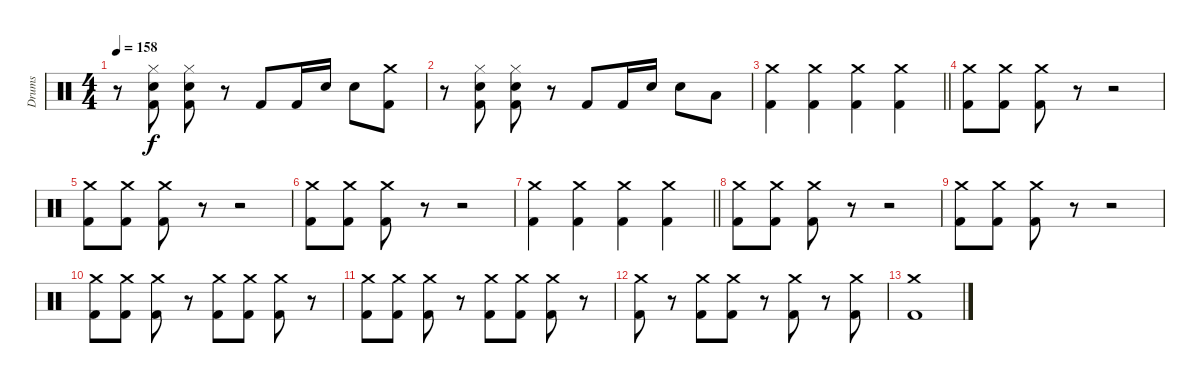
\track ("Drums" "Drums") {instrument percussion}
\staff {score}
\articulation defaults
\ts (4 4)
\tempo 158
\clef neutral
\ks c
r.8{dy f} ("Hi-Hat (closed)" "Snare (hit) 2" "Kick (hit) 2").8 ("Hi-Hat (closed)" "Snare (hit) 2" "Kick (hit) 2").8 r.8 "Kick (hit) 2".8 "Kick (hit) 2".16 "Snare (hit) 2".16 "Snare (hit) 2".8 ("Crash medium (hit)" "Kick (hit) 2").8 |
r.8 ("Hi-Hat (closed)" "Snare (hit) 2" "Kick (hit) 2").8 ("Hi-Hat (closed)" "Snare (hit) 2" "Kick (hit) 2").8 r.8 "Kick (hit) 2".8 "Kick (hit) 2".16 "Snare (hit) 2".16 "Snare (hit) 2".8 "Low Tom (hit)".8 |
\barLineRight lightlight
("Crash medium (hit)" "Kick (hit) 2").4 ("Crash medium (hit)" "Kick (hit) 2").4 ("Crash medium (hit)" "Kick (hit) 2").4 ("Crash medium (hit)" "Kick (hit) 2").4 |
("Crash medium (hit)" "Kick (hit) 2").8 ("Crash medium (hit)" "Kick (hit) 2").8 ("Crash medium (hit)" "Kick (hit) 2").8 r.8 r.2 |
("Crash medium (hit)" "Kick (hit) 2").8 ("Crash medium (hit)" "Kick (hit) 2").8 ("Crash medium (hit)" "Kick (hit) 2").8 r.8 r.2 |
("Crash medium (hit)" "Kick (hit) 2").8 ("Crash medium (hit)" "Kick (hit) 2").8 ("Crash medium (hit)" "Kick (hit) 2").8 r.8 r.2 |
\barLineRight lightlight
("Crash medium (hit)" "Kick (hit) 2").4 ("Crash medium (hit)" "Kick (hit) 2").4 ("Crash medium (hit)" "Kick (hit) 2").4 ("Crash medium (hit)" "Kick (hit) 2").4 |
("Crash medium (hit)" "Kick (hit) 2").8 ("Crash medium (hit)" "Kick (hit) 2").8 ("Crash medium (hit)" "Kick (hit) 2").8 r.8 r.2 |
("Crash medium (hit)" "Kick (hit) 2").8 ("Crash medium (hit)" "Kick (hit) 2").8 ("Crash medium (hit)" "Kick (hit) 2").8 r.8 r.2 |
("Crash medium (hit)" "Kick (hit) 2").8 ("Crash medium (hit)" "Kick (hit) 2").8 ("Crash medium (hit)" "Kick (hit) 2").8 r.8 ("Crash medium (hit)" "Kick (hit) 2").8 ("Crash medium (hit)" "Kick (hit) 2").8 ("Crash medium (hit)" "Kick (hit) 2").8 r.8 |
("Crash medium (hit)" "Kick (hit) 2").8 ("Crash medium (hit)" "Kick (hit) 2").8 ("Crash medium (hit)" "Kick (hit) 2").8 r.8 ("Crash medium (hit)" "Kick (hit) 2").8 ("Crash medium (hit)" "Kick (hit) 2").8 ("Crash medium (hit)" "Kick (hit) 2").8 r.8 |
("Crash medium (hit)" "Kick (hit) 2").8 r.8 ("Crash medium (hit)" "Kick (hit) 2").8 ("Crash medium (hit)" "Kick (hit) 2").8 r.8 ("Crash medium (hit)" "Kick (hit) 2").8 r.8 ("Crash medium (hit)" "Kick (hit) 2").8 |
("Crash medium (hit)" "Kick (hit) 2").1
